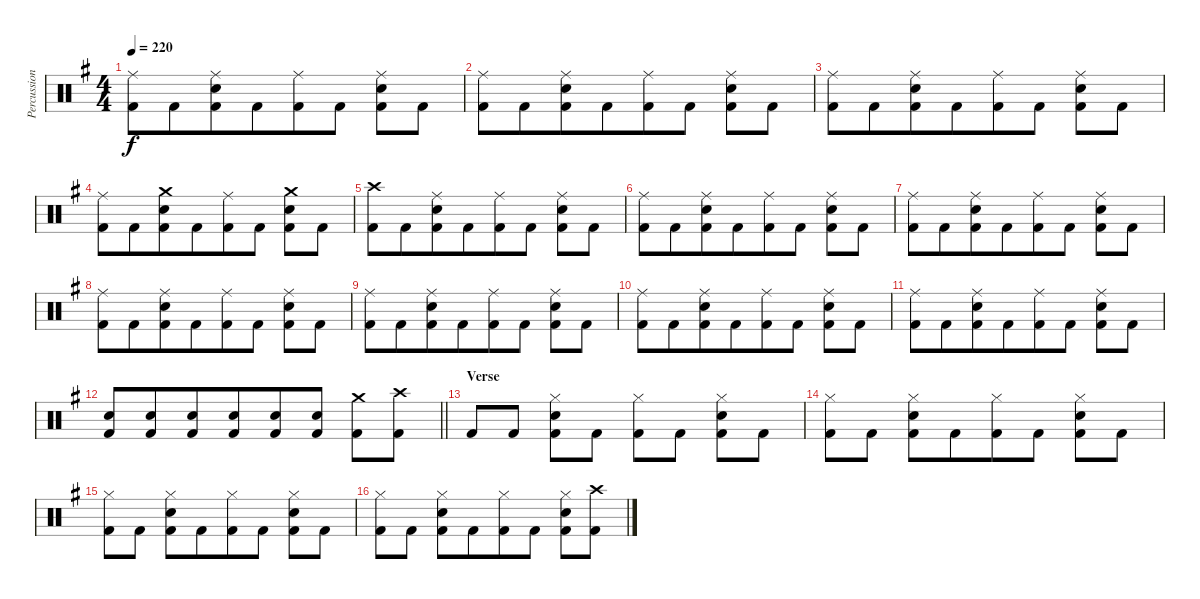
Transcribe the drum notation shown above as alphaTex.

\track ("Percussion" "Percussion") {instrument percussion}
\staff {score}
\articulation defaults
\ts (4 4)
\tempo 220
\clef neutral
\ks eminor
("Ride (middle)" "Kick (hit) 2").8{dy f} "Kick (hit) 2".8{beam merge} ("Ride (middle)" "Snare (hit) 2" "Kick (hit) 2").8{beam merge} "Kick (hit) 2".8{beam merge} ("Ride (middle)" "Kick (hit) 2").8{beam merge} "Kick (hit) 2".8 ("Ride (middle)" "Snare (hit) 2" "Kick (hit) 2").8 "Kick (hit) 2".8 |
("Ride (middle)" "Kick (hit) 2").8 "Kick (hit) 2".8{beam merge} ("Ride (middle)" "Snare (hit) 2" "Kick (hit) 2").8{beam merge} "Kick (hit) 2".8{beam merge} ("Ride (middle)" "Kick (hit) 2").8{beam merge} "Kick (hit) 2".8 ("Ride (middle)" "Snare (hit) 2" "Kick (hit) 2").8 "Kick (hit) 2".8 |
("Ride (middle)" "Kick (hit) 2").8 "Kick (hit) 2".8{beam merge} ("Ride (middle)" "Snare (hit) 2" "Kick (hit) 2").8{beam merge} "Kick (hit) 2".8{beam merge} ("Ride (middle)" "Kick (hit) 2").8{beam merge} "Kick (hit) 2".8 ("Ride (middle)" "Snare (hit) 2" "Kick (hit) 2").8 "Kick (hit) 2".8 |
("Ride (middle)" "Kick (hit) 2").8 "Kick (hit) 2".8{beam merge} ("Crash medium (hit)" "Snare (hit) 2" "Kick (hit) 2").8{beam merge} "Kick (hit) 2".8{beam merge} ("Ride (middle)" "Kick (hit) 2").8{beam merge} "Kick (hit) 2".8 ("Crash medium (hit)" "Snare (hit) 2" "Kick (hit) 2").8 "Kick (hit) 2".8 |
("Crash high (hit)" "Kick (hit) 2").8 "Kick (hit) 2".8{beam merge} ("Ride (middle)" "Snare (hit) 2" "Kick (hit) 2").8{beam merge} "Kick (hit) 2".8{beam merge} ("Ride (middle)" "Kick (hit) 2").8{beam merge} "Kick (hit) 2".8 ("Ride (middle)" "Snare (hit) 2" "Kick (hit) 2").8 "Kick (hit) 2".8 |
("Ride (middle)" "Kick (hit) 2").8 "Kick (hit) 2".8{beam merge} ("Ride (middle)" "Snare (hit) 2" "Kick (hit) 2").8{beam merge} "Kick (hit) 2".8{beam merge} ("Ride (middle)" "Kick (hit) 2").8{beam merge} "Kick (hit) 2".8 ("Ride (middle)" "Snare (hit) 2" "Kick (hit) 2").8 "Kick (hit) 2".8 |
("Ride (middle)" "Kick (hit) 2").8 "Kick (hit) 2".8{beam merge} ("Ride (middle)" "Snare (hit) 2" "Kick (hit) 2").8{beam merge} "Kick (hit) 2".8{beam merge} ("Ride (middle)" "Kick (hit) 2").8{beam merge} "Kick (hit) 2".8 ("Ride (middle)" "Snare (hit) 2" "Kick (hit) 2").8 "Kick (hit) 2".8 |
("Ride (middle)" "Kick (hit) 2").8 "Kick (hit) 2".8{beam merge} ("Ride (middle)" "Snare (hit) 2" "Kick (hit) 2").8{beam merge} "Kick (hit) 2".8{beam merge} ("Ride (middle)" "Kick (hit) 2").8{beam merge} "Kick (hit) 2".8 ("Ride (middle)" "Snare (hit) 2" "Kick (hit) 2").8 "Kick (hit) 2".8 |
("Ride (middle)" "Kick (hit) 2").8 "Kick (hit) 2".8{beam merge} ("Ride (middle)" "Snare (hit) 2" "Kick (hit) 2").8{beam merge} "Kick (hit) 2".8{beam merge} ("Ride (middle)" "Kick (hit) 2").8{beam merge} "Kick (hit) 2".8 ("Ride (middle)" "Snare (hit) 2" "Kick (hit) 2").8 "Kick (hit) 2".8 |
("Ride (middle)" "Kick (hit) 2").8 "Kick (hit) 2".8{beam merge} ("Ride (middle)" "Snare (hit) 2" "Kick (hit) 2").8{beam merge} "Kick (hit) 2".8{beam merge} ("Ride (middle)" "Kick (hit) 2").8{beam merge} "Kick (hit) 2".8 ("Ride (middle)" "Snare (hit) 2" "Kick (hit) 2").8 "Kick (hit) 2".8 |
("Ride (middle)" "Kick (hit) 2").8 "Kick (hit) 2".8{beam merge} ("Ride (middle)" "Snare (hit) 2" "Kick (hit) 2").8{beam merge} "Kick (hit) 2".8{beam merge} ("Ride (middle)" "Kick (hit) 2").8{beam merge} "Kick (hit) 2".8 ("Ride (middle)" "Snare (hit) 2" "Kick (hit) 2").8 "Kick (hit) 2".8 |
\barLineRight lightlight
("Snare (hit) 2" "Kick (hit) 2").8 ("Snare (hit) 2" "Kick (hit) 2").8{beam merge} ("Snare (hit) 2" "Kick (hit) 2").8{beam merge} ("Snare (hit) 2" "Kick (hit) 2").8{beam merge} ("Snare (hit) 2" "Kick (hit) 2").8{beam merge} ("Snare (hit) 2" "Kick (hit) 2").8 ("Crash medium (hit)" "Kick (hit) 2").8 ("Crash high (hit)" "Kick (hit) 2").8 |
\section ("" "Verse")
"Kick (hit) 2".8{beam merge} "Kick (hit) 2".8 ("Hi-Hat (closed)" "Snare (hit) 2" "Kick (hit) 2").8 "Kick (hit) 2".8 ("Hi-Hat (closed)" "Kick (hit) 2").8 "Kick (hit) 2".8 ("Hi-Hat (closed)" "Snare (hit) 2" "Kick (hit) 2").8{beam merge} "Kick (hit) 2".8 |
("Hi-Hat (closed)" "Kick (hit) 2").8 "Kick (hit) 2".8 ("Hi-Hat (closed)" "Snare (hit) 2" "Kick (hit) 2").8{beam merge} "Kick (hit) 2".8{beam merge} ("Hi-Hat (closed)" "Kick (hit) 2").8{beam merge} "Kick (hit) 2".8 ("Hi-Hat (closed)" "Snare (hit) 2" "Kick (hit) 2").8 "Kick (hit) 2".8 |
("Hi-Hat (closed)" "Kick (hit) 2").8 "Kick (hit) 2".8 ("Hi-Hat (closed)" "Snare (hit) 2" "Kick (hit) 2").8{beam merge} "Kick (hit) 2".8{beam merge} ("Hi-Hat (closed)" "Kick (hit) 2").8{beam merge} "Kick (hit) 2".8 ("Hi-Hat (closed)" "Snare (hit) 2" "Kick (hit) 2").8 "Kick (hit) 2".8 |
("Hi-Hat (closed)" "Kick (hit) 2").8 "Kick (hit) 2".8 ("Hi-Hat (closed)" "Snare (hit) 2" "Kick (hit) 2").8{beam merge} "Kick (hit) 2".8{beam merge} ("Hi-Hat (closed)" "Kick (hit) 2").8{beam merge} "Kick (hit) 2".8 ("Hi-Hat (closed)" "Snare (hit) 2" "Kick (hit) 2").8 ("Crash high (hit)" "Kick (hit) 2").8
